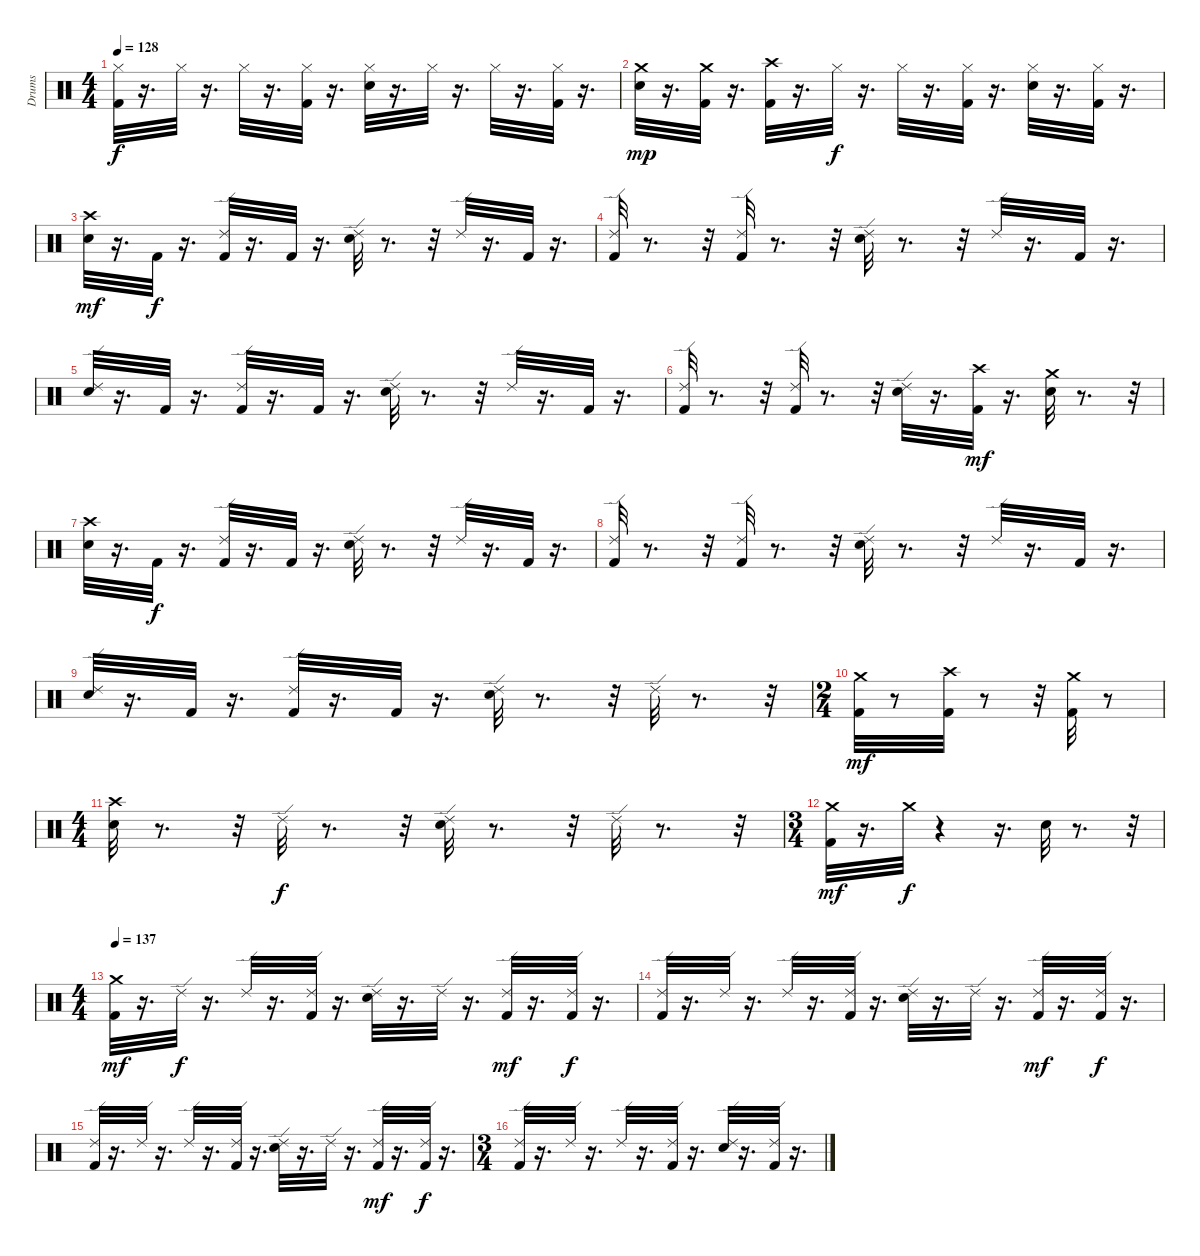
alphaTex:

\track ("Drums" "Drums") {instrument percussion}
\staff {score}
\articulation defaults
\ts (4 4)
\tempo 128
\clef neutral
\ks c
("Kick (hit) 2" "Hi-Hat (closed)").32{dy f} r.16{d} "Hi-Hat (closed)".32 r.16{d} "Hi-Hat (closed)".32 r.16{d} ("Kick (hit) 2" "Hi-Hat (closed)").32 r.16{d} ("Snare (hit) 2" "Hi-Hat (closed)").32 r.16{d} "Hi-Hat (closed)".32 r.16{d} "Hi-Hat (closed)".32 r.16{d} ("Kick (hit) 2" "Hi-Hat (closed)").32 r.16{d} |
("Snare (hit) 2" "Crash medium (hit)").32{dy mp} r.16{d} ("Kick (hit) 2" "Crash medium (hit)").32 r.16{d} ("Kick (hit) 2" "Crash high (hit)").32 r.16{d} "Hi-Hat (closed)".32{dy f} r.16{d} "Hi-Hat (closed)".32 r.16{d} ("Kick (hit) 2" "Hi-Hat (closed)").32 r.16{d} ("Snare (hit) 2" "Hi-Hat (closed)").32 r.16{d} ("Kick (hit) 2" "Hi-Hat (closed)").32 r.16{d} |
("Snare (hit) 2" "Crash high (hit)").32{dy mf} r.16{d} "Kick (hit) 2".32{dy f} r.16{d} ("Kick (hit) 2" "Ride (edge) 2").32 r.16{d} "Kick (hit) 2".32 r.16{d} ("Snare (hit) 2" "Ride (edge) 2").32 r.8{d} r.32 "Ride (edge) 2".32 r.16{d} "Kick (hit) 2".32 r.16{d} |
("Kick (hit) 2" "Ride (edge) 2").32 r.8{d} r.32 ("Kick (hit) 2" "Ride (edge) 2").32 r.8{d} r.32 ("Snare (hit) 2" "Ride (edge) 2").32 r.8{d} r.32 "Ride (edge) 2".32 r.16{d} "Kick (hit) 2".32 r.16{d} |
("Snare (hit) 2" "Ride (edge) 2").32 r.16{d} "Kick (hit) 2".32 r.16{d} ("Kick (hit) 2" "Ride (edge) 2").32 r.16{d} "Kick (hit) 2".32 r.16{d} ("Snare (hit) 2" "Ride (edge) 2").32 r.8{d} r.32 "Ride (edge) 2".32 r.16{d} "Kick (hit) 2".32 r.16{d} |
("Kick (hit) 2" "Ride (edge) 2").32 r.8{d} r.32 ("Kick (hit) 2" "Ride (edge) 2").32 r.8{d} r.32 ("Snare (hit) 2" "Ride (edge) 2").32 r.16{d} ("Kick (hit) 2" "Crash high (hit)").32{dy mf} r.16{d} ("Snare (hit) 2" "Crash medium (hit)").32 r.8{d} r.32 |
("Snare (hit) 2" "Crash high (hit)").32 r.16{d} "Kick (hit) 2".32{dy f} r.16{d} ("Kick (hit) 2" "Ride (edge) 2").32 r.16{d} "Kick (hit) 2".32 r.16{d} ("Snare (hit) 2" "Ride (edge) 2").32 r.8{d} r.32 "Ride (edge) 2".32 r.16{d} "Kick (hit) 2".32 r.16{d} |
("Kick (hit) 2" "Ride (edge) 2").32 r.8{d} r.32 ("Kick (hit) 2" "Ride (edge) 2").32 r.8{d} r.32 ("Snare (hit) 2" "Ride (edge) 2").32 r.8{d} r.32 "Ride (edge) 2".32 r.16{d} "Kick (hit) 2".32 r.16{d} |
("Snare (hit) 2" "Ride (edge) 2").32 r.16{d} "Kick (hit) 2".32 r.16{d} ("Kick (hit) 2" "Ride (edge) 2").32 r.16{d} "Kick (hit) 2".32 r.16{d} ("Snare (hit) 2" "Ride (edge) 2").32 r.8{d} r.32 "Ride (edge) 2".32 r.8{d} r.32 |
\ts (2 4)
("Kick (hit) 2" "Crash medium (hit)").32{dy mf} r.8 ("Kick (hit) 2" "Crash high (hit)").32 r.8 r.32 ("Kick (hit) 2" "Crash medium (hit)").32 r.8 |
\ts (4 4)
("Snare (hit) 2" "Crash high (hit)").32 r.8{d} r.32 "Ride (edge) 2".32{dy f} r.8{d} r.32 ("Snare (hit) 2" "Ride (edge) 2").32 r.8{d} r.32 "Ride (edge) 2".32 r.8{d} r.32 |
\ts (3 4)
("Kick (hit) 2" "Crash medium (hit)").32{dy mf} r.16{d} "Crash medium (hit)".32{dy f} r.4 r.16{d} "Snare (hit) 2".32 r.8{d} r.32 |
\ts (4 4)
\tempo 137
("Kick (hit) 2" "Crash medium (hit)").32{dy mf} r.16{d} "Ride (edge) 2".32{dy f} r.16{d} "Ride (edge) 2".32 r.16{d} ("Kick (hit) 2" "Ride (edge) 2").32 r.16{d} ("Snare (hit) 2" "Ride (edge) 2").32 r.16{d} "Ride (edge) 2".32 r.16{d} ("Kick (hit) 2" "Ride (edge) 2").32{dy mf} r.16{d} ("Kick (hit) 2" "Ride (edge) 2").32{dy f} r.16{d} |
("Kick (hit) 2" "Ride (edge) 2").32 r.16{d} "Ride (edge) 2".32 r.16{d} "Ride (edge) 2".32 r.16{d} ("Kick (hit) 2" "Ride (edge) 2").32 r.16{d} ("Snare (hit) 2" "Ride (edge) 2").32 r.16{d} "Ride (edge) 2".32 r.16{d} ("Kick (hit) 2" "Ride (edge) 2").32{dy mf} r.16{d} ("Kick (hit) 2" "Ride (edge) 2").32{dy f} r.16{d} |
("Kick (hit) 2" "Ride (edge) 2").32 r.16{d} "Ride (edge) 2".32 r.16{d} "Ride (edge) 2".32 r.16{d} ("Kick (hit) 2" "Ride (edge) 2").32 r.16{d} ("Snare (hit) 2" "Ride (edge) 2").32 r.16{d} "Ride (edge) 2".32 r.16{d} ("Kick (hit) 2" "Ride (edge) 2").32{dy mf} r.16{d} ("Kick (hit) 2" "Ride (edge) 2").32{dy f} r.16{d} |
\ts (3 4)
("Kick (hit) 2" "Ride (edge) 2").32 r.16{d} "Ride (edge) 2".32 r.16{d} "Ride (edge) 2".32 r.16{d} ("Kick (hit) 2" "Ride (edge) 2").32 r.16{d} ("Snare (hit) 2" "Ride (edge) 2").32 r.16{d} ("Kick (hit) 2" "Ride (edge) 2").32 r.16{d}
